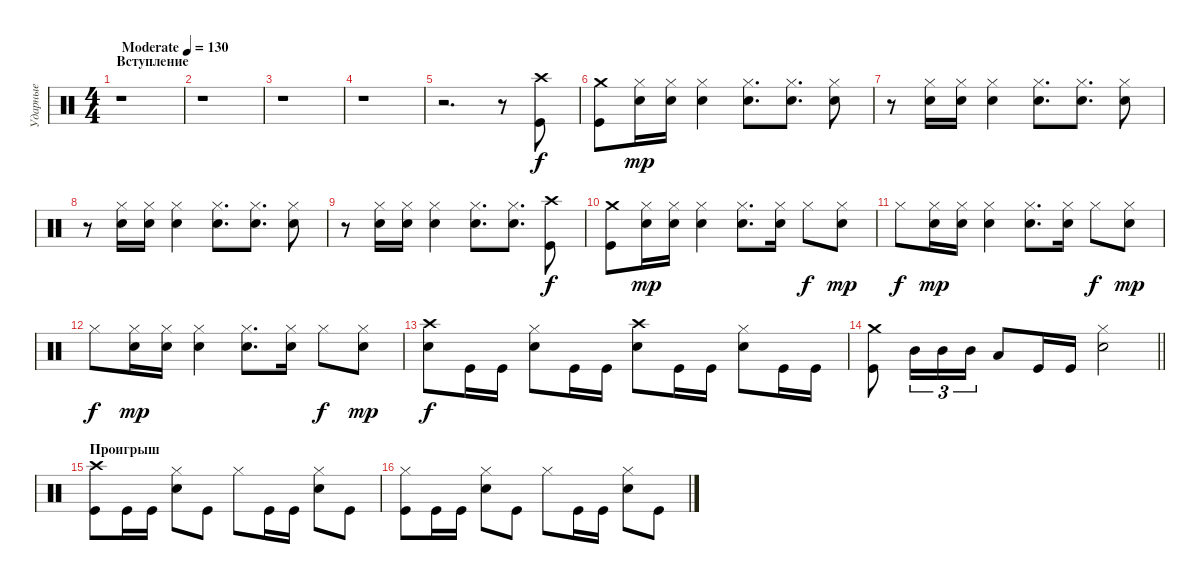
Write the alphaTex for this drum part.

\track ("Ударные" "Ударные") {instrument percussion}
\staff {score}
\articulation defaults
\ts (4 4)
\section ("" "Вступление")
\tempo (130 "Moderate")
\clef neutral
\ks c
r.1{dy f} |
r.1 |
r.1 |
r.1 |
r.2{d} r.8 ("Crash high (hit)" "Kick (hit)").8 |
("Crash medium (hit)" "Kick (hit)").8 ("Hi-Hat (closed)" "Snare (hit) 2").16{dy mp} ("Hi-Hat (closed)" "Snare (hit) 2").16 ("Hi-Hat (closed)" "Snare (hit) 2").4 ("Hi-Hat (closed)" "Snare (hit) 2").8{d} ("Hi-Hat (closed)" "Snare (hit) 2").8{d} ("Hi-Hat (closed)" "Snare (hit) 2").8 |
r.8 ("Hi-Hat (closed)" "Snare (hit) 2").16 ("Hi-Hat (closed)" "Snare (hit) 2").16 ("Hi-Hat (closed)" "Snare (hit) 2").4 ("Hi-Hat (closed)" "Snare (hit) 2").8{d} ("Hi-Hat (closed)" "Snare (hit) 2").8{d} ("Hi-Hat (closed)" "Snare (hit) 2").8 |
r.8 ("Hi-Hat (closed)" "Snare (hit) 2").16 ("Hi-Hat (closed)" "Snare (hit) 2").16 ("Hi-Hat (closed)" "Snare (hit) 2").4 ("Hi-Hat (closed)" "Snare (hit) 2").8{d} ("Hi-Hat (closed)" "Snare (hit) 2").8{d} ("Hi-Hat (closed)" "Snare (hit) 2").8 |
r.8 ("Hi-Hat (closed)" "Snare (hit) 2").16 ("Hi-Hat (closed)" "Snare (hit) 2").16 ("Hi-Hat (closed)" "Snare (hit) 2").4 ("Hi-Hat (closed)" "Snare (hit) 2").8{d} ("Hi-Hat (closed)" "Snare (hit) 2").8{d} ("Crash high (hit)" "Kick (hit)").8{dy f} |
("Crash medium (hit)" "Kick (hit)").8 ("Hi-Hat (closed)" "Snare (hit) 2").16{dy mp} ("Hi-Hat (closed)" "Snare (hit) 2").16 ("Hi-Hat (closed)" "Snare (hit) 2").4 ("Hi-Hat (closed)" "Snare (hit) 2").8{d} ("Hi-Hat (closed)" "Snare (hit) 2").16 "Hi-Hat (closed)".8{dy f} ("Hi-Hat (closed)" "Snare (hit) 2").8{dy mp} |
"Hi-Hat (closed)".8{dy f} ("Hi-Hat (closed)" "Snare (hit) 2").16{dy mp} ("Hi-Hat (closed)" "Snare (hit) 2").16 ("Hi-Hat (closed)" "Snare (hit) 2").4 ("Hi-Hat (closed)" "Snare (hit) 2").8{d} ("Hi-Hat (closed)" "Snare (hit) 2").16 "Hi-Hat (closed)".8{dy f} ("Hi-Hat (closed)" "Snare (hit) 2").8{dy mp} |
"Hi-Hat (closed)".8{dy f} ("Hi-Hat (closed)" "Snare (hit) 2").16{dy mp} ("Hi-Hat (closed)" "Snare (hit) 2").16 ("Hi-Hat (closed)" "Snare (hit) 2").4 ("Hi-Hat (closed)" "Snare (hit) 2").8{d} ("Hi-Hat (closed)" "Snare (hit) 2").16 "Hi-Hat (closed)".8{dy f} ("Hi-Hat (closed)" "Snare (hit) 2").8{dy mp} |
("Crash high (hit)" "Snare (hit) 2").8{dy f} "Kick (hit)".16 "Kick (hit)".16 ("Hi-Hat (closed)" "Snare (hit) 2").8 "Kick (hit)".16 "Kick (hit)".16 ("Crash high (hit)" "Snare (hit) 2").8 "Kick (hit)".16 "Kick (hit)".16 ("Hi-Hat (closed)" "Snare (hit) 2").8 "Kick (hit)".16 "Kick (hit)".16 |
\barLineRight lightlight
("Crash medium (hit)" "Kick (hit)").8 "Mid Tom (hit)".16{tu (3 2)} "Mid Tom (hit)".16{tu (3 2)} "Mid Tom (hit)".16{tu (3 2)} "Low Tom (hit)".8 "Kick (hit)".16 "Kick (hit)".16 ("Hi-Hat (closed)" "Snare (hit) 2").2 |
\section ("" "Проигрыш")
("Crash high (hit)" "Kick (hit)").8 "Kick (hit)".16 "Kick (hit)".16 ("Hi-Hat (closed)" "Snare (hit) 2").8 "Kick (hit)".8 "Hi-Hat (closed)".8 "Kick (hit)".16 "Kick (hit)".16 ("Hi-Hat (closed)" "Snare (hit) 2").8 "Kick (hit)".8 |
("Hi-Hat (closed)" "Kick (hit)").8 "Kick (hit)".16 "Kick (hit)".16 ("Hi-Hat (closed)" "Snare (hit) 2").8 "Kick (hit)".8 "Hi-Hat (closed)".8 "Kick (hit)".16 "Kick (hit)".16 ("Hi-Hat (closed)" "Snare (hit) 2").8 "Kick (hit)".8
